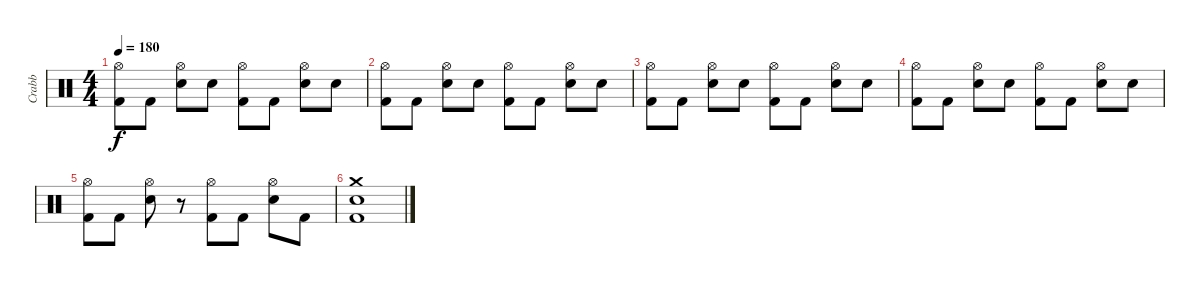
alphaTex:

\track ("Crabb" "Crabb") {instrument percussion}
\staff {score}
\articulation defaults
\ts (4 4)
\tempo 180
\clef neutral
\ks c
("Hi-Hat (open)" "Kick (hit) 2").8{dy f} "Kick (hit) 2".8 ("Hi-Hat (open)" "Electric Snare (hit)").8 "Electric Snare (hit)".8 ("Hi-Hat (open)" "Kick (hit) 2").8 "Kick (hit) 2".8 ("Hi-Hat (open)" "Electric Snare (hit)").8 "Electric Snare (hit)".8 |
("Hi-Hat (open)" "Kick (hit) 2").8 "Kick (hit) 2".8 ("Hi-Hat (open)" "Electric Snare (hit)").8 "Electric Snare (hit)".8 ("Hi-Hat (open)" "Kick (hit) 2").8 "Kick (hit) 2".8 ("Hi-Hat (open)" "Electric Snare (hit)").8 "Electric Snare (hit)".8 |
("Hi-Hat (open)" "Kick (hit) 2").8 "Kick (hit) 2".8 ("Hi-Hat (open)" "Electric Snare (hit)").8 "Electric Snare (hit)".8 ("Hi-Hat (open)" "Kick (hit) 2").8 "Kick (hit) 2".8 ("Hi-Hat (open)" "Electric Snare (hit)").8 "Electric Snare (hit)".8 |
("Hi-Hat (open)" "Kick (hit) 2").8 "Kick (hit) 2".8 ("Hi-Hat (open)" "Electric Snare (hit)").8 "Electric Snare (hit)".8 ("Hi-Hat (open)" "Kick (hit) 2").8 "Kick (hit) 2".8 ("Hi-Hat (open)" "Electric Snare (hit)").8 "Electric Snare (hit)".8 |
("Hi-Hat (open)" "Kick (hit) 2").8 "Kick (hit) 2".8 ("Hi-Hat (open)" "Electric Snare (hit)").8 r.8 ("Hi-Hat (open)" "Kick (hit) 2").8 "Kick (hit) 2".8 ("Hi-Hat (open)" "Electric Snare (hit)").8 "Kick (hit) 2".8 |
("Crash medium (hit)" "Electric Snare (hit)" "Kick (hit) 2").1
